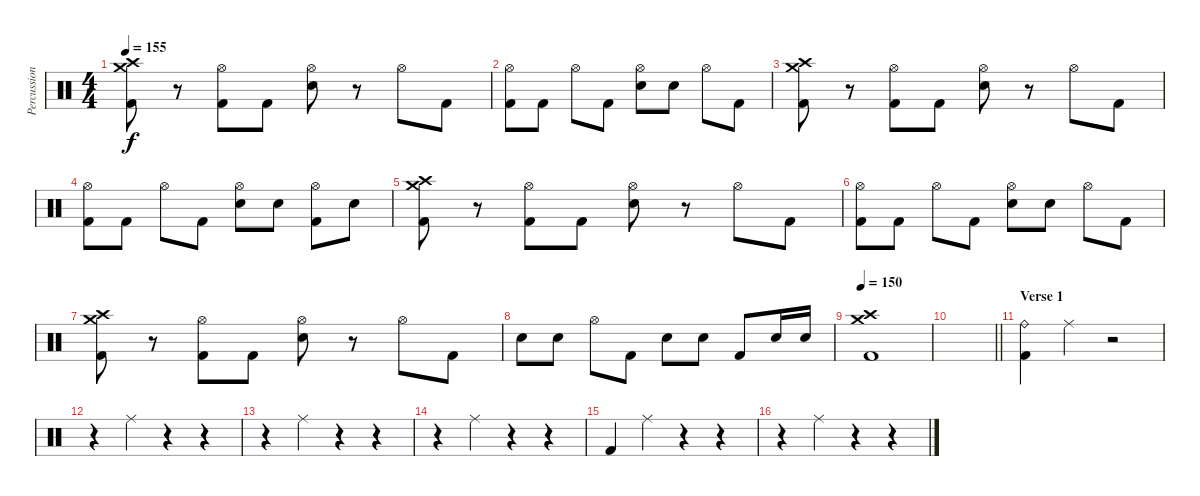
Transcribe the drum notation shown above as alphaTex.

\track ("Percussion" "Percussion") {instrument percussion}
\staff {score}
\articulation defaults
\ts (4 4)
\tempo 155
\clef neutral
\ks c
("Crash high (hit)" "Crash medium (hit)" "Kick (hit) 2").8{dy f} r.8 ("Hi-Hat (open)" "Kick (hit) 2").8 "Kick (hit) 2".8 ("Hi-Hat (open)" "Electric Snare (hit)").8 r.8 "Hi-Hat (open)".8 "Kick (hit) 2".8 |
("Hi-Hat (open)" "Kick (hit) 2").8 "Kick (hit) 2".8 "Hi-Hat (open)".8 "Kick (hit) 2".8 ("Hi-Hat (open)" "Electric Snare (hit)").8 "Electric Snare (hit)".8 "Hi-Hat (open)".8 "Kick (hit) 2".8 |
("Crash high (hit)" "Crash medium (hit)" "Kick (hit) 2").8 r.8 ("Hi-Hat (open)" "Kick (hit) 2").8 "Kick (hit) 2".8 ("Hi-Hat (open)" "Electric Snare (hit)").8 r.8 "Hi-Hat (open)".8 "Kick (hit) 2".8 |
("Hi-Hat (open)" "Kick (hit) 2").8 "Kick (hit) 2".8 "Hi-Hat (open)".8 "Kick (hit) 2".8 ("Hi-Hat (open)" "Electric Snare (hit)").8 "Electric Snare (hit)".8 ("Hi-Hat (open)" "Kick (hit) 2").8 "Electric Snare (hit)".8 |
("Crash high (hit)" "Crash medium (hit)" "Kick (hit) 2").8 r.8 ("Hi-Hat (open)" "Kick (hit) 2").8 "Kick (hit) 2".8 ("Hi-Hat (open)" "Electric Snare (hit)").8 r.8 "Hi-Hat (open)".8 "Kick (hit) 2".8 |
("Hi-Hat (open)" "Kick (hit) 2").8 "Kick (hit) 2".8 "Hi-Hat (open)".8 "Kick (hit) 2".8 ("Hi-Hat (open)" "Electric Snare (hit)").8 "Electric Snare (hit)".8 "Hi-Hat (open)".8 "Kick (hit) 2".8 |
("Crash high (hit)" "Crash medium (hit)" "Kick (hit) 2").8 r.8 ("Hi-Hat (open)" "Kick (hit) 2").8 "Kick (hit) 2".8 ("Hi-Hat (open)" "Electric Snare (hit)").8 r.8 "Hi-Hat (open)".8 "Kick (hit) 2".8 |
"Electric Snare (hit)".8 "Electric Snare (hit)".8 "Hi-Hat (open)".8 "Kick (hit) 2".8 "Electric Snare (hit)".8 "Electric Snare (hit)".8 "Kick (hit) 2".8 "Electric Snare (hit)".16 "Electric Snare (hit)".16 |
\tempo 150
("Crash high (hit)" "Crash medium (hit)" "Kick (hit) 2").1 |
\barLineRight lightlight
|
\section ("" "Verse 1")
("Ride (bell)" "Kick (hit) 2").4 "Ride (middle)".4 r.2 |
r.4 "Ride (middle)".4 r.4 r.4 |
r.4 "Ride (middle)".4 r.4 r.4 |
r.4 "Ride (middle)".4 r.4 r.4 |
"Kick (hit) 2".4 "Ride (middle)".4 r.4 r.4 |
r.4 "Ride (middle)".4 r.4 r.4
